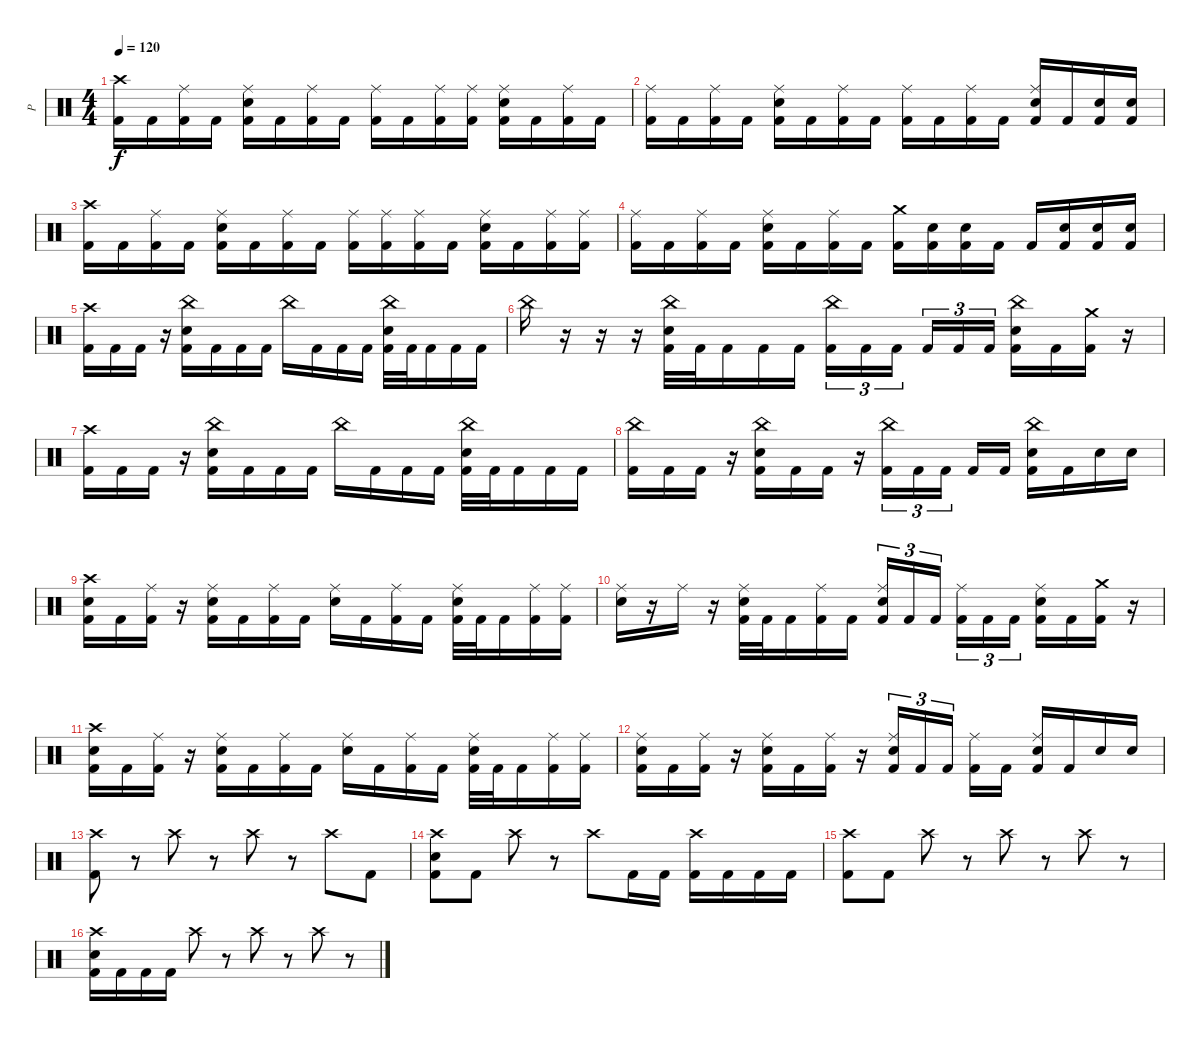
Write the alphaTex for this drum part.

\track ("P" "P") {instrument percussion}
\staff {score}
\articulation defaults
\ts (4 4)
\tempo 120
\clef neutral
\ks c
("Crash high (hit)" "Kick (hit) 2").16{dy f} "Kick (hit) 2".16 ("Ride (middle)" "Kick (hit) 2").16 "Kick (hit) 2".16 ("Ride (middle)" "Electric Snare (hit)" "Kick (hit) 2").16 "Kick (hit) 2".16 ("Ride (middle)" "Kick (hit) 2").16 "Kick (hit) 2".16 ("Ride (middle)" "Kick (hit) 2").16 "Kick (hit) 2".16 ("Ride (middle)" "Kick (hit) 2").16 ("Ride (middle)" "Kick (hit) 2").16 ("Ride (middle)" "Electric Snare (hit)" "Kick (hit) 2").16 "Kick (hit) 2".16 ("Ride (middle)" "Kick (hit) 2").16 "Kick (hit) 2".16 |
("Ride (middle)" "Kick (hit) 2").16 "Kick (hit) 2".16 ("Ride (middle)" "Kick (hit) 2").16 "Kick (hit) 2".16 ("Ride (middle)" "Electric Snare (hit)" "Kick (hit) 2").16 "Kick (hit) 2".16 ("Ride (middle)" "Kick (hit) 2").16 "Kick (hit) 2".16 ("Ride (middle)" "Kick (hit) 2").16 "Kick (hit) 2".16 ("Ride (middle)" "Kick (hit) 2").16 "Kick (hit) 2".16 ("Ride (middle)" "Electric Snare (hit)" "Kick (hit) 2").16 "Kick (hit) 2".16 ("Electric Snare (hit)" "Kick (hit) 2").16 ("Electric Snare (hit)" "Kick (hit) 2").16 |
("Crash high (hit)" "Kick (hit) 2").16 "Kick (hit) 2".16 ("Ride (middle)" "Kick (hit) 2").16 "Kick (hit) 2".16 ("Ride (middle)" "Electric Snare (hit)" "Kick (hit) 2").16 "Kick (hit) 2".16 ("Ride (middle)" "Kick (hit) 2").16 "Kick (hit) 2".16 ("Ride (middle)" "Kick (hit) 2").16 ("Ride (middle)" "Kick (hit) 2").16 ("Ride (middle)" "Kick (hit) 2").16 "Kick (hit) 2".16 ("Ride (middle)" "Electric Snare (hit)" "Kick (hit) 2").16 "Kick (hit) 2".16 ("Ride (middle)" "Kick (hit) 2").16 ("Ride (middle)" "Kick (hit) 2").16 |
("Ride (middle)" "Kick (hit) 2").16 "Kick (hit) 2".16 ("Ride (middle)" "Kick (hit) 2").16 "Kick (hit) 2".16 ("Ride (middle)" "Electric Snare (hit)" "Kick (hit) 2").16 "Kick (hit) 2".16 ("Ride (middle)" "Kick (hit) 2").16 "Kick (hit) 2".16 ("Crash medium (hit)" "Kick (hit) 2").16 ("Electric Snare (hit)" "Kick (hit) 2").16 ("Electric Snare (hit)" "Kick (hit) 2").16 "Kick (hit) 2".16 "Kick (hit) 2".16 ("Electric Snare (hit)" "Kick (hit) 2").16 ("Electric Snare (hit)" "Kick (hit) 2").16 ("Electric Snare (hit)" "Kick (hit) 2").16 |
("Crash high (hit)" "Kick (hit) 2").16 "Kick (hit) 2".16 "Kick (hit) 2".16 r.16 ("China (hit)" "Electric Snare (hit)" "Kick (hit) 2").16 "Kick (hit) 2".16 "Kick (hit) 2".16 "Kick (hit) 2".16 "China (hit)".16 "Kick (hit) 2".16 "Kick (hit) 2".16 "Kick (hit) 2".16 ("China (hit)" "Electric Snare (hit)" "Kick (hit) 2").32 "Kick (hit) 2".32 "Kick (hit) 2".16 "Kick (hit) 2".16 "Kick (hit) 2".16 |
"China (hit)".16 r.16 r.16 r.16 ("China (hit)" "Electric Snare (hit)" "Kick (hit) 2").32 "Kick (hit) 2".32 "Kick (hit) 2".16 "Kick (hit) 2".16 "Kick (hit) 2".16 ("China (hit)" "Kick (hit) 2").16{tu (3 2)} "Kick (hit) 2".16{tu (3 2)} "Kick (hit) 2".16{tu (3 2) beam splitsecondary} "Kick (hit) 2".16{tu (3 2)} "Kick (hit) 2".16{tu (3 2)} "Kick (hit) 2".16{tu (3 2)} ("China (hit)" "Electric Snare (hit)" "Kick (hit) 2").16 "Kick (hit) 2".16 ("Crash medium (hit)" "Kick (hit) 2").16 r.16 |
("Crash high (hit)" "Kick (hit) 2").16 "Kick (hit) 2".16 "Kick (hit) 2".16 r.16 ("China (hit)" "Electric Snare (hit)" "Kick (hit) 2").16 "Kick (hit) 2".16 "Kick (hit) 2".16 "Kick (hit) 2".16 "China (hit)".16 "Kick (hit) 2".16 "Kick (hit) 2".16 "Kick (hit) 2".16 ("China (hit)" "Electric Snare (hit)" "Kick (hit) 2").32 "Kick (hit) 2".32 "Kick (hit) 2".16 "Kick (hit) 2".16 "Kick (hit) 2".16 |
("China (hit)" "Kick (hit) 2").16 "Kick (hit) 2".16 "Kick (hit) 2".16 r.16 ("China (hit)" "Electric Snare (hit)" "Kick (hit) 2").16 "Kick (hit) 2".16 "Kick (hit) 2".16 r.16 ("China (hit)" "Kick (hit) 2").16{tu (3 2)} "Kick (hit) 2".16{tu (3 2)} "Kick (hit) 2".16{tu (3 2) beam splitsecondary} "Kick (hit) 2".16 "Kick (hit) 2".16 ("China (hit)" "Electric Snare (hit)" "Kick (hit) 2").16 "Kick (hit) 2".16 "Electric Snare (hit)".16 "Electric Snare (hit)".16 |
("Crash high (hit)" "Electric Snare (hit)" "Kick (hit) 2").16 "Kick (hit) 2".16 ("Ride (middle)" "Kick (hit) 2").16 r.16 ("Ride (middle)" "Electric Snare (hit)" "Kick (hit) 2").16 "Kick (hit) 2".16 ("Ride (middle)" "Kick (hit) 2").16 "Kick (hit) 2".16 ("Ride (middle)" "Electric Snare (hit)").16 "Kick (hit) 2".16 ("Ride (middle)" "Kick (hit) 2").16 "Kick (hit) 2".16 ("Ride (middle)" "Electric Snare (hit)" "Kick (hit) 2").32 "Kick (hit) 2".32 "Kick (hit) 2".16 ("Ride (middle)" "Kick (hit) 2").16 ("Ride (middle)" "Kick (hit) 2").16 |
("Ride (middle)" "Electric Snare (hit)").16 r.16 "Ride (middle)".16 r.16 ("Ride (middle)" "Electric Snare (hit)" "Kick (hit) 2").32 "Kick (hit) 2".32 "Kick (hit) 2".16 ("Ride (middle)" "Kick (hit) 2").16 "Kick (hit) 2".16 ("Ride (middle)" "Electric Snare (hit)" "Kick (hit) 2").16{tu (3 2)} "Kick (hit) 2".16{tu (3 2)} "Kick (hit) 2".16{tu (3 2) beam splitsecondary} ("Ride (middle)" "Kick (hit) 2").16{tu (3 2)} "Kick (hit) 2".16{tu (3 2)} "Kick (hit) 2".16{tu (3 2)} ("Ride (middle)" "Electric Snare (hit)" "Kick (hit) 2").16 "Kick (hit) 2".16 ("Crash medium (hit)" "Kick (hit) 2").16 r.16 |
("Crash high (hit)" "Electric Snare (hit)" "Kick (hit) 2").16 "Kick (hit) 2".16 ("Ride (middle)" "Kick (hit) 2").16 r.16 ("Ride (middle)" "Electric Snare (hit)" "Kick (hit) 2").16 "Kick (hit) 2".16 ("Ride (middle)" "Kick (hit) 2").16 "Kick (hit) 2".16 ("Ride (middle)" "Electric Snare (hit)").16 "Kick (hit) 2".16 ("Ride (middle)" "Kick (hit) 2").16 "Kick (hit) 2".16 ("Ride (middle)" "Electric Snare (hit)" "Kick (hit) 2").32 "Kick (hit) 2".32 "Kick (hit) 2".16 ("Ride (middle)" "Kick (hit) 2").16 ("Ride (middle)" "Kick (hit) 2").16 |
("Ride (middle)" "Electric Snare (hit)" "Kick (hit) 2").16 "Kick (hit) 2".16 ("Ride (middle)" "Kick (hit) 2").16 r.16 ("Ride (middle)" "Electric Snare (hit)" "Kick (hit) 2").16 "Kick (hit) 2".16 ("Ride (middle)" "Kick (hit) 2").16 r.16 ("Ride (middle)" "Electric Snare (hit)" "Kick (hit) 2").16{tu (3 2)} "Kick (hit) 2".16{tu (3 2)} "Kick (hit) 2".16{tu (3 2) beam splitsecondary} ("Ride (middle)" "Kick (hit) 2").16 "Kick (hit) 2".16 ("Ride (middle)" "Electric Snare (hit)" "Kick (hit) 2").16 "Kick (hit) 2".16 "Electric Snare (hit)".16 "Electric Snare (hit)".16 |
("Crash high (hit)" "Kick (hit) 2").8 r.8 "Crash high (hit)".8 r.8 "Crash high (hit)".8 r.8 "Crash high (hit)".8 "Kick (hit) 2".8 |
("Crash high (hit)" "Electric Snare (hit)" "Kick (hit) 2").8 "Kick (hit) 2".8 "Crash high (hit)".8 r.8 "Crash high (hit)".8 "Kick (hit) 2".16 "Kick (hit) 2".16 ("Crash high (hit)" "Kick (hit) 2").16 "Kick (hit) 2".16 "Kick (hit) 2".16 "Kick (hit) 2".16 |
("Crash high (hit)" "Kick (hit) 2").8 "Kick (hit) 2".8 "Crash high (hit)".8 r.8 "Crash high (hit)".8 r.8 "Crash high (hit)".8 r.8 |
("Crash high (hit)" "Electric Snare (hit)" "Kick (hit) 2").16 "Kick (hit) 2".16 "Kick (hit) 2".16 "Kick (hit) 2".16 "Crash high (hit)".8 r.8 "Crash high (hit)".8 r.8 "Crash high (hit)".8 r.8
